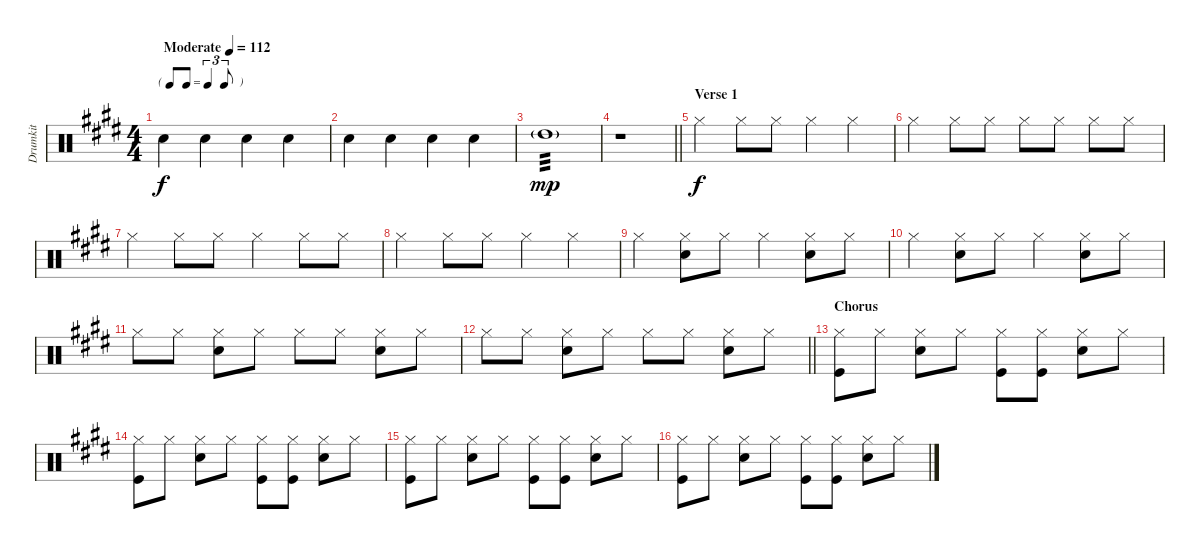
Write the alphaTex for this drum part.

\track ("Drumkit" "Drumkit") {instrument percussion}
\staff {score}
\articulation defaults
\ts (4 4)
\tf triplet8th
\tempo (112 "Moderate")
\clef neutral
\ks e "Snare (hit) 2".4{dy f} "Snare (hit) 2".4 "Snare (hit) 2".4 "Snare (hit) 2".4
|
"Snare (hit) 2".4 "Snare (hit) 2".4 "Snare (hit) 2".4 "Snare (hit) 2".4 |
"High Tom (hit)"{g}.1{tp 3 dy mp} |
\barLineRight lightlight
r.1 |
\section ("" "Verse 1")
"Hi-Hat (closed)".4{dy f} "Hi-Hat (closed)".8 "Hi-Hat (closed)".8 "Hi-Hat (closed)".4 "Hi-Hat (closed)".4 |
"Hi-Hat (closed)".4 "Hi-Hat (closed)".8 "Hi-Hat (closed)".8 "Hi-Hat (closed)".8 "Hi-Hat (closed)".8 "Hi-Hat (closed)".8 "Hi-Hat (closed)".8 |
"Hi-Hat (closed)".4 "Hi-Hat (closed)".8 "Hi-Hat (closed)".8 "Hi-Hat (closed)".4 "Hi-Hat (closed)".8 "Hi-Hat (closed)".8 |
"Hi-Hat (closed)".4 "Hi-Hat (closed)".8 "Hi-Hat (closed)".8 "Hi-Hat (closed)".4 "Hi-Hat (closed)".4 |
"Hi-Hat (closed)".4 ("Hi-Hat (closed)" "Snare (hit) 2").8 "Hi-Hat (closed)".8 "Hi-Hat (closed)".4 ("Hi-Hat (closed)" "Snare (hit) 2").8 "Hi-Hat (closed)".8 |
"Hi-Hat (closed)".4 ("Hi-Hat (closed)" "Snare (hit) 2").8 "Hi-Hat (closed)".8 "Hi-Hat (closed)".4 ("Hi-Hat (closed)" "Snare (hit) 2").8 "Hi-Hat (closed)".8 |
"Hi-Hat (closed)".8 "Hi-Hat (closed)".8 ("Hi-Hat (closed)" "Snare (hit) 2").8 "Hi-Hat (closed)".8 "Hi-Hat (closed)".8 "Hi-Hat (closed)".8 ("Hi-Hat (closed)" "Snare (hit) 2").8 "Hi-Hat (closed)".8 |
\barLineRight lightlight "Hi-Hat (closed)".8 "Hi-Hat (closed)".8
("Hi-Hat (closed)" "Snare (hit) 2").8 "Hi-Hat (closed)".8 "Hi-Hat (closed)".8 "Hi-Hat (closed)".8 ("Hi-Hat (closed)" "Snare (hit) 2").8 "Hi-Hat (closed)".8 |
\section ("" "Chorus")
("Hi-Hat (closed)" "Kick (hit)").8 "Hi-Hat (closed)".8 ("Hi-Hat (closed)" "Snare (hit) 2").8 "Hi-Hat (closed)".8 ("Hi-Hat (closed)" "Kick (hit)").8 ("Hi-Hat (closed)" "Kick (hit)").8 ("Hi-Hat (closed)" "Snare (hit) 2").8 "Hi-Hat (closed)".8 |
("Hi-Hat (closed)" "Kick (hit)").8 "Hi-Hat (closed)".8 ("Hi-Hat (closed)" "Snare (hit) 2").8 "Hi-Hat (closed)".8 ("Hi-Hat (closed)" "Kick (hit)").8 ("Hi-Hat (closed)" "Kick (hit)").8 ("Hi-Hat (closed)" "Snare (hit) 2").8 "Hi-Hat (closed)".8 |
("Hi-Hat (closed)" "Kick (hit)").8 "Hi-Hat (closed)".8 ("Hi-Hat (closed)" "Snare (hit) 2").8 "Hi-Hat (closed)".8 ("Hi-Hat (closed)" "Kick (hit)").8 ("Hi-Hat (closed)" "Kick (hit)").8 ("Hi-Hat (closed)" "Snare (hit) 2").8 "Hi-Hat (closed)".8 |
("Hi-Hat (closed)" "Kick (hit)").8 "Hi-Hat (closed)".8 ("Hi-Hat (closed)" "Snare (hit) 2").8 "Hi-Hat (closed)".8 ("Hi-Hat (closed)" "Kick (hit)").8 ("Hi-Hat (closed)" "Kick (hit)").8 ("Hi-Hat (closed)" "Snare (hit) 2").8 "Hi-Hat (closed)".8
